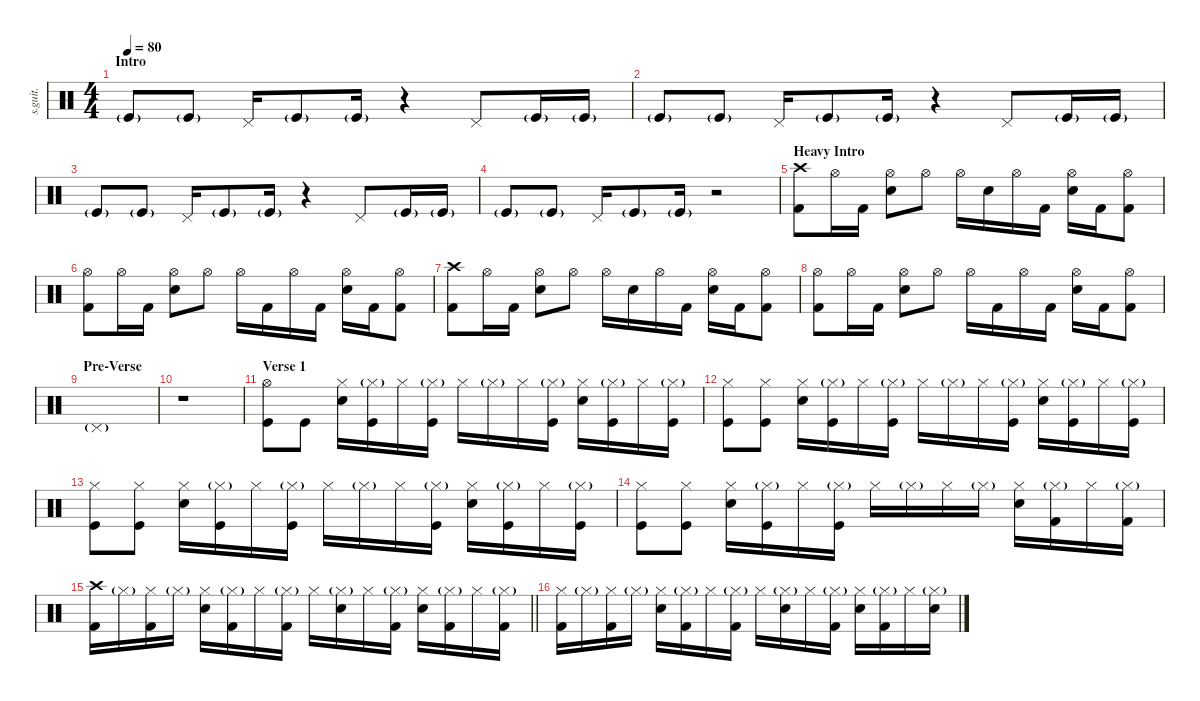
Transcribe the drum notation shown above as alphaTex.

\defaultSystemsLayout 4
\hideDynamics
\bracketExtendMode nobrackets
\track ("" "s.guit.") {instrument percussion}
\staff {score}
\articulation defaults
\ts (4 4)
\beaming (8 2 2 2 2)
\section ("" "Intro")
\tempo 80
\clef neutral
\ks c "Kick (hit)"{g}.8{dy ff} "Kick (hit)"{g}.8 "Pedal Hi-Hat (hit)".16 "Kick (hit)"{g}.8 "Kick (hit)"{g}.16
r.4 "Pedal Hi-Hat (hit)".8 "Kick (hit)"{g}.16 "Kick (hit)"{g}.16 |
"Kick (hit)"{g}.8 "Kick (hit)"{g}.8 "Pedal Hi-Hat (hit)".16 "Kick (hit)"{g}.8 "Kick (hit)"{g}.16 r.4 "Pedal Hi-Hat (hit)".8 "Kick (hit)"{g}.16 "Kick (hit)"{g}.16 |
"Kick (hit)"{g}.8 "Kick (hit)"{g}.8 "Pedal Hi-Hat (hit)".16 "Kick (hit)"{g}.8 "Kick (hit)"{g}.16 r.4 "Pedal Hi-Hat (hit)".8 "Kick (hit)"{g}.16 "Kick (hit)"{g}.16 |
"Kick (hit)"{g}.8 "Kick (hit)"{g}.8 "Pedal Hi-Hat (hit)".16 "Kick (hit)"{g}.8 "Kick (hit)"{g}.16 r.2 |
\section ("" "Heavy Intro")
("Crash high (hit)" "Kick (hit) 2").8 "Hi-Hat (open)".16 "Kick (hit) 2".16 ("Hi-Hat (open)" "Snare (hit) 2").8 "Hi-Hat (open)".8 "Hi-Hat (open)".16 "Snare (hit) 2".16 "Hi-Hat (open)".16 "Kick (hit) 2".16 ("Hi-Hat (open)" "Snare (hit) 2").16 "Kick (hit) 2".16 ("Hi-Hat (open)" "Kick (hit) 2").8 |
("Hi-Hat (open)" "Kick (hit) 2").8 "Hi-Hat (open)".16 "Kick (hit) 2".16 ("Hi-Hat (open)" "Snare (hit) 2").8 "Hi-Hat (open)".8 "Hi-Hat (open)".16 "Kick (hit) 2".16 "Hi-Hat (open)".16 "Kick (hit) 2".16 ("Hi-Hat (open)" "Snare (hit) 2").16 "Kick (hit) 2".16 ("Hi-Hat (open)" "Kick (hit) 2").8 |
("Crash high (hit)" "Kick (hit) 2").8 "Hi-Hat (open)".16 "Kick (hit) 2".16 ("Hi-Hat (open)" "Snare (hit) 2").8 "Hi-Hat (open)".8 "Hi-Hat (open)".16 "Snare (hit) 2".16 "Hi-Hat (open)".16 "Kick (hit) 2".16 ("Hi-Hat (open)" "Snare (hit) 2").16 "Kick (hit) 2".16 ("Hi-Hat (open)" "Kick (hit) 2").8 |
("Hi-Hat (open)" "Kick (hit) 2").8 "Hi-Hat (open)".16 "Kick (hit) 2".16 ("Hi-Hat (open)" "Snare (hit) 2").8 "Hi-Hat (open)".8 "Hi-Hat (open)".16 "Kick (hit) 2".16 "Hi-Hat (open)".16 "Kick (hit) 2".16 ("Hi-Hat (open)" "Snare (hit) 2").16 "Kick (hit) 2".16 ("Hi-Hat (open)" "Kick (hit) 2").8 |
\section ("" "Pre-Verse")
"Pedal Hi-Hat (hit)"{g}.1 |
r.1 |
\section ("" "Verse 1")
("Hi-Hat (open)" "Kick (hit)").8 "Kick (hit)".8 ("Hi-Hat (closed)" "Snare (hit) 2").16 ("Hi-Hat (closed)"{g} "Kick (hit)").16 "Hi-Hat (closed)".16 ("Hi-Hat (closed)"{g} "Kick (hit)").16 "Hi-Hat (closed)".16 "Hi-Hat (closed)"{g}.16 "Hi-Hat (closed)".16 ("Hi-Hat (closed)"{g} "Kick (hit)").16 ("Hi-Hat (closed)" "Snare (hit) 2").16 ("Hi-Hat (closed)"{g} "Kick (hit)").16 "Hi-Hat (closed)".16 ("Hi-Hat (closed)"{g} "Kick (hit)").16 |
("Hi-Hat (closed)" "Kick (hit)").8 ("Hi-Hat (closed)" "Kick (hit)").8 ("Hi-Hat (closed)" "Snare (hit) 2").16 ("Hi-Hat (closed)"{g} "Kick (hit)").16 "Hi-Hat (closed)".16 ("Hi-Hat (closed)"{g} "Kick (hit)").16 "Hi-Hat (closed)".16 "Hi-Hat (closed)"{g}.16 "Hi-Hat (closed)".16 ("Hi-Hat (closed)"{g} "Kick (hit)").16 ("Hi-Hat (closed)" "Snare (hit) 2").16 ("Hi-Hat (closed)"{g} "Kick (hit)").16 "Hi-Hat (closed)".16 ("Hi-Hat (closed)"{g} "Kick (hit)").16 |
("Hi-Hat (closed)" "Kick (hit)").8 ("Hi-Hat (closed)" "Kick (hit)").8 ("Hi-Hat (closed)" "Snare (hit) 2").16 ("Hi-Hat (closed)"{g} "Kick (hit)").16 "Hi-Hat (closed)".16 ("Hi-Hat (closed)"{g} "Kick (hit)").16 "Hi-Hat (closed)".16 "Hi-Hat (closed)"{g}.16 "Hi-Hat (closed)".16 ("Hi-Hat (closed)"{g} "Kick (hit)").16 ("Hi-Hat (closed)" "Snare (hit) 2").16 ("Hi-Hat (closed)"{g} "Kick (hit)").16 "Hi-Hat (closed)".16 ("Hi-Hat (closed)"{g} "Kick (hit)").16 |
("Hi-Hat (closed)" "Kick (hit)").8 ("Hi-Hat (closed)" "Kick (hit)").8 ("Hi-Hat (closed)" "Snare (hit) 2").16 ("Hi-Hat (closed)"{g} "Kick (hit)").16 "Hi-Hat (closed)".16 ("Hi-Hat (closed)"{g} "Kick (hit)").16 "Hi-Hat (closed)".16 "Hi-Hat (closed)"{g}.16 "Hi-Hat (closed)".16 "Hi-Hat (closed)"{g}.16 ("Hi-Hat (closed)" "Snare (hit) 2").16 ("Hi-Hat (closed)"{g} "Kick (hit) 2").16 "Hi-Hat (closed)".16 ("Hi-Hat (closed)"{g} "Kick (hit) 2").16 |
\barLineRight lightlight
("Crash high (hit)" "Kick (hit) 2").16 "Hi-Hat (closed)"{g}.16 ("Hi-Hat (closed)" "Kick (hit) 2").16 "Hi-Hat (closed)"{g}.16 ("Hi-Hat (closed)" "Snare (hit) 2").16 ("Hi-Hat (closed)"{g} "Kick (hit) 2").16 "Hi-Hat (closed)".16 ("Hi-Hat (closed)"{g} "Kick (hit) 2").16 "Hi-Hat (closed)".16 ("Hi-Hat (closed)"{g} "Snare (hit) 2").16 "Hi-Hat (closed)".16 ("Hi-Hat (closed)"{g} "Kick (hit) 2").16 ("Hi-Hat (closed)" "Snare (hit) 2").16 ("Hi-Hat (closed)"{g} "Kick (hit) 2").16 "Hi-Hat (closed)".16 ("Hi-Hat (closed)"{g} "Kick (hit) 2").16 |
("Hi-Hat (closed)" "Kick (hit) 2").16 "Hi-Hat (closed)"{g}.16 ("Hi-Hat (closed)" "Kick (hit) 2").16 "Hi-Hat (closed)"{g}.16 ("Hi-Hat (closed)" "Snare (hit) 2").16 ("Hi-Hat (closed)"{g} "Kick (hit) 2").16 "Hi-Hat (closed)".16 ("Hi-Hat (closed)"{g} "Kick (hit) 2").16 "Hi-Hat (closed)".16 ("Hi-Hat (closed)"{g} "Snare (hit) 2").16 "Hi-Hat (closed)".16 ("Hi-Hat (closed)"{g} "Kick (hit) 2").16 ("Hi-Hat (closed)" "Snare (hit) 2").16 ("Hi-Hat (closed)"{g} "Kick (hit) 2").16 "Hi-Hat (closed)".16 ("Hi-Hat (closed)"{g} "Snare (hit) 2").16
